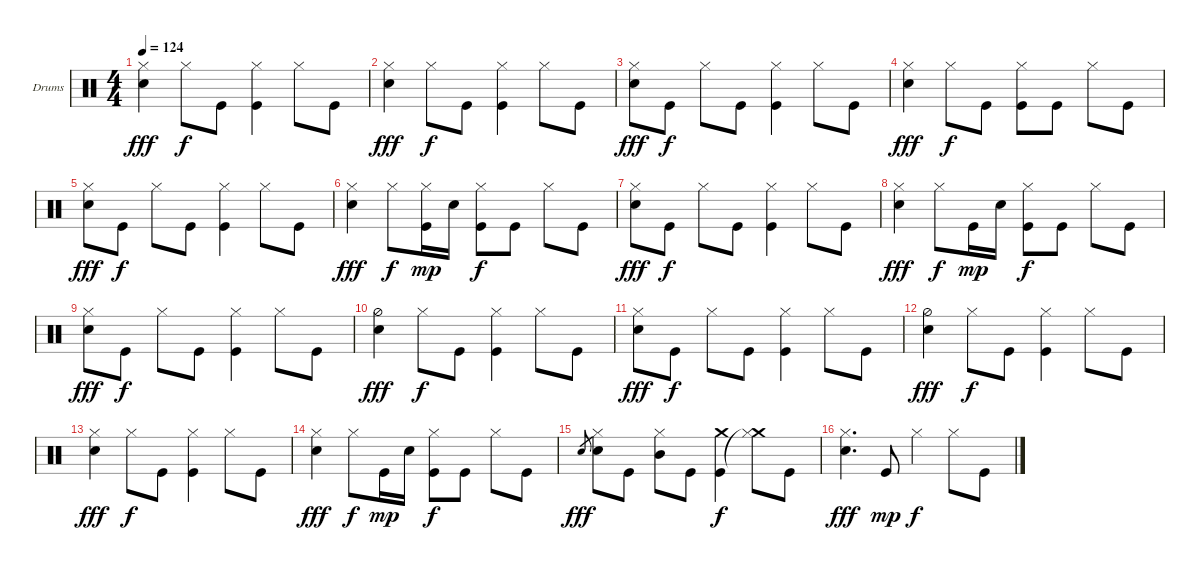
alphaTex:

\bracketExtendMode groupsimilarinstruments
\firstSystemTrackNameOrientation horizontal
\otherSystemsTrackNameOrientation horizontal
\track ("drums - john hinch" "Drums") {instrument percussion}
\staff {score}
\articulation defaults
\ts (4 4)
\tempo 124
\clef neutral
\scale
0.217054
\ks c
("Snare (hit) 2" "Hi-Hat (closed)").4{dy fff} "Hi-Hat (closed)".8{dy f} "Kick (hit)".8 ("Kick (hit)" "Hi-Hat (closed)").4 "Hi-Hat (closed)".8 "Kick (hit)".8 |
\scale
0.333333 ("Snare (hit) 2" "Hi-Hat (closed)").4{dy fff} "Hi-Hat (closed)".8{dy f} "Kick (hit)".8 ("Kick (hit)" "Hi-Hat (closed)").4 "Hi-Hat (closed)".8 "Kick (hit)".8 |
\scale
0.333333 ("Snare (hit) 2" "Hi-Hat (closed)").8{dy fff} "Kick (hit)".8{dy f} "Hi-Hat (closed)".8 "Kick (hit)".8 ("Kick (hit)" "Hi-Hat (closed)").4 "Hi-Hat (closed)".8 "Kick (hit)".8 |
\scale
0.333333 ("Snare (hit) 2" "Hi-Hat (closed)").4{dy fff} "Hi-Hat (closed)".8{dy f} "Kick (hit)".8 ("Kick (hit)" "Hi-Hat (closed)").8 "Kick (hit)".8 "Hi-Hat (closed)".8 "Kick (hit)".8 |
\scale
0.333333 ("Snare (hit) 2" "Hi-Hat (closed)").8{dy fff} "Kick (hit)".8{dy f} "Hi-Hat (closed)".8 "Kick (hit)".8 ("Kick (hit)" "Hi-Hat (closed)").4 "Hi-Hat (closed)".8 "Kick (hit)".8 |
\scale
0.333333 ("Snare (hit) 2" "Hi-Hat (closed)").4{dy fff} "Hi-Hat (closed)".8{dy f} ("Hi-Hat (closed)" "Kick (hit)").16{dy mp} "Snare (hit) 2".16 ("Kick (hit)" "Hi-Hat (closed)").8{dy f} "Kick (hit)".8 "Hi-Hat (closed)".8 "Kick (hit)".8 |
\scale
0.333333 ("Snare (hit) 2" "Hi-Hat (closed)").8{dy fff} "Kick (hit)".8{dy f} "Hi-Hat (closed)".8 "Kick (hit)".8 ("Kick (hit)" "Hi-Hat (closed)").4 "Hi-Hat (closed)".8 "Kick (hit)".8 |
\scale
0.333333 ("Snare (hit) 2" "Hi-Hat (closed)").4{dy fff} "Hi-Hat (closed)".8{dy f} "Kick (hit)".16{dy mp} "Snare (hit) 2".16 ("Kick (hit)" "Hi-Hat (closed)").8{dy f} "Kick (hit)".8 "Hi-Hat (closed)".8 "Kick (hit)".8 |
\scale
0.333333 ("Snare (hit) 2" "Hi-Hat (closed)").8{dy fff} "Kick (hit)".8{dy f} "Hi-Hat (closed)".8 "Kick (hit)".8 ("Kick (hit)" "Hi-Hat (closed)").4 "Hi-Hat (closed)".8 "Kick (hit)".8 |
\scale
0.333333 ("Snare (hit) 2" "Hi-Hat (half)").4{dy fff} "Hi-Hat (closed)".8{dy f} "Kick (hit)".8 ("Kick (hit)" "Hi-Hat (closed)").4 "Hi-Hat (closed)".8 "Kick (hit)".8 |
\scale
0.333333 ("Snare (hit) 2" "Hi-Hat (closed)").8{dy fff} "Kick (hit)".8{dy f} "Hi-Hat (closed)".8 "Kick (hit)".8 ("Kick (hit)" "Hi-Hat (closed)").4 "Hi-Hat (closed)".8 "Kick (hit)".8 |
\scale
0.333333 ("Snare (hit) 2" "Hi-Hat (half)").4{dy fff} "Hi-Hat (closed)".8{dy f} "Kick (hit)".8 ("Kick (hit)" "Hi-Hat (closed)").4 "Hi-Hat (closed)".8 "Kick (hit)".8 |
\scale
0.333333 ("Snare (hit) 2" "Hi-Hat (closed)").4{dy fff} "Hi-Hat (closed)".8{dy f} "Kick (hit)".8 ("Kick (hit)" "Hi-Hat (closed)").4 "Hi-Hat (closed)".8 "Kick (hit)".8 |
\scale
0.333333 ("Snare (hit) 2" "Hi-Hat (closed)").4{dy fff} "Hi-Hat (closed)".8{dy f} "Kick (hit)".16{dy mp} "Snare (hit) 2".16 ("Kick (hit)" "Hi-Hat (closed)").8{dy f} "Kick (hit)".8 "Hi-Hat (closed)".8 "Kick (hit)".8 |
\scale
0.333333 "Snare (hit) 2".8{gr dy fff} ("Snare (hit) 2" "Hi-Hat (closed)").8 "Kick (hit)".8 ("Mid Tom (hit)" "Hi-Hat (closed)").8 "Kick (hit)".8 ("Kick (hit)" "Crash medium (hit)").4{dy f} ("Crash medium (hit)"{t} "Hi-Hat (closed)").8 "Kick (hit)".8 |
\scale
0.333333 ("Snare (hit) 2" "Hi-Hat (closed)").4{d dy fff} "Kick (hit)".8{dy mp} "Hi-Hat (closed)".4{dy f} "Hi-Hat (closed)".8 "Kick (hit)".8
